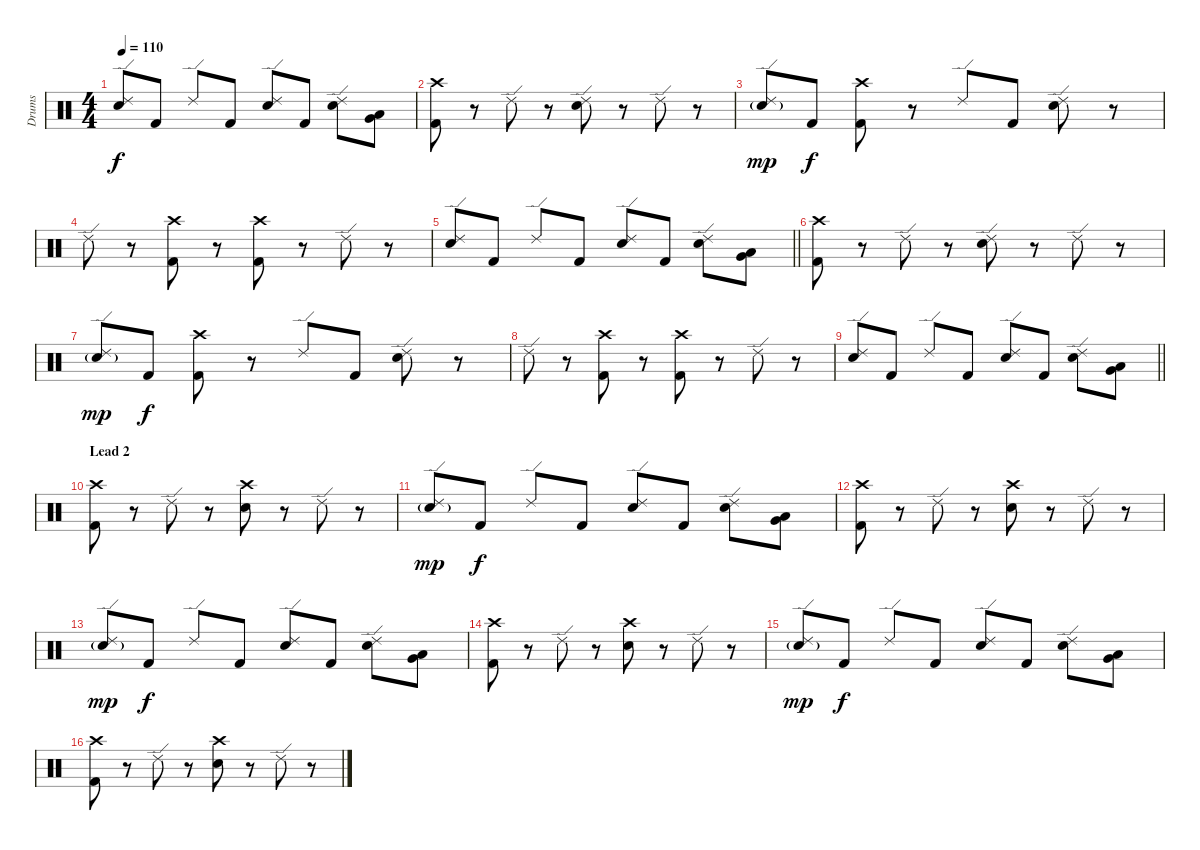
\track ("Drums" "Drums") {instrument percussion}
\staff {score}
\articulation defaults
\ts (4 4)
\tempo 110
\clef neutral
\ks c
("Ride (edge) 2" "Snare (hit) 2").8{dy f} "Kick (hit) 2".8 "Ride (edge) 2".8 "Kick (hit) 2".8 ("Ride (edge) 2" "Snare (hit) 2").8 "Kick (hit) 2".8 ("Ride (edge) 2" "Snare (hit) 2").8 ("Very Low Tom (hit)" "Low Floor Tom (hit)").8 |
("Crash high (hit)" "Kick (hit) 2").8 r.8 "Ride (edge) 2".8 r.8 ("Ride (edge) 2" "Snare (hit) 2").8 r.8 "Ride (edge) 2".8 r.8 |
("Ride (edge) 2" "Snare (hit) 2"{g}).8{dy mp} "Kick (hit) 2".8{dy f} ("Crash high (hit)" "Kick (hit) 2").8 r.8 "Ride (edge) 2".8 "Kick (hit) 2".8 ("Ride (edge) 2" "Snare (hit) 2").8 r.8 |
"Ride (edge) 2".8 r.8 ("Crash high (hit)" "Kick (hit) 2").8 r.8 ("Crash high (hit)" "Kick (hit) 2").8 r.8 "Ride (edge) 2".8 r.8 |
\barLineRight lightlight
("Ride (edge) 2" "Snare (hit) 2").8 "Kick (hit) 2".8 "Ride (edge) 2".8 "Kick (hit) 2".8 ("Ride (edge) 2" "Snare (hit) 2").8 "Kick (hit) 2".8 ("Ride (edge) 2" "Snare (hit) 2").8 ("Very Low Tom (hit)" "Low Floor Tom (hit)").8 |
("Crash high (hit)" "Kick (hit) 2").8 r.8 "Ride (edge) 2".8 r.8 ("Ride (edge) 2" "Snare (hit) 2").8 r.8 "Ride (edge) 2".8 r.8 |
("Ride (edge) 2" "Snare (hit) 2"{g}).8{dy mp} "Kick (hit) 2".8{dy f} ("Crash high (hit)" "Kick (hit) 2").8 r.8 "Ride (edge) 2".8 "Kick (hit) 2".8 ("Ride (edge) 2" "Snare (hit) 2").8 r.8 |
"Ride (edge) 2".8 r.8 ("Crash high (hit)" "Kick (hit) 2").8 r.8 ("Crash high (hit)" "Kick (hit) 2").8 r.8 "Ride (edge) 2".8 r.8 |
\barLineRight lightlight
("Ride (edge) 2" "Snare (hit) 2").8 "Kick (hit) 2".8 "Ride (edge) 2".8 "Kick (hit) 2".8 ("Ride (edge) 2" "Snare (hit) 2").8 "Kick (hit) 2".8 ("Ride (edge) 2" "Snare (hit) 2").8 ("Very Low Tom (hit)" "Low Floor Tom (hit)").8 |
\section ("" "Lead 2")
("Crash high (hit)" "Kick (hit) 2").8 r.8 "Ride (edge) 2".8 r.8 ("Crash high (hit)" "Snare (hit) 2").8 r.8 "Ride (edge) 2".8 r.8 |
("Ride (edge) 2" "Snare (hit) 2"{g}).8{dy mp} "Kick (hit) 2".8{dy f} "Ride (edge) 2".8 "Kick (hit) 2".8 ("Ride (edge) 2" "Snare (hit) 2").8 "Kick (hit) 2".8 ("Ride (edge) 2" "Snare (hit) 2").8 ("Very Low Tom (hit)" "Low Floor Tom (hit)").8 |
("Crash high (hit)" "Kick (hit) 2").8 r.8 "Ride (edge) 2".8 r.8 ("Crash high (hit)" "Snare (hit) 2").8 r.8 "Ride (edge) 2".8 r.8 |
("Ride (edge) 2" "Snare (hit) 2"{g}).8{dy mp} "Kick (hit) 2".8{dy f} "Ride (edge) 2".8 "Kick (hit) 2".8 ("Ride (edge) 2" "Snare (hit) 2").8 "Kick (hit) 2".8 ("Ride (edge) 2" "Snare (hit) 2").8 ("Very Low Tom (hit)" "Low Floor Tom (hit)").8 |
("Crash high (hit)" "Kick (hit) 2").8 r.8 "Ride (edge) 2".8 r.8 ("Crash high (hit)" "Snare (hit) 2").8 r.8 "Ride (edge) 2".8 r.8 |
("Ride (edge) 2" "Snare (hit) 2"{g}).8{dy mp} "Kick (hit) 2".8{dy f} "Ride (edge) 2".8 "Kick (hit) 2".8 ("Ride (edge) 2" "Snare (hit) 2").8 "Kick (hit) 2".8 ("Ride (edge) 2" "Snare (hit) 2").8 ("Very Low Tom (hit)" "Low Floor Tom (hit)").8 |
("Crash high (hit)" "Kick (hit) 2").8 r.8 "Ride (edge) 2".8 r.8 ("Crash high (hit)" "Snare (hit) 2").8 r.8 "Ride (edge) 2".8 r.8
